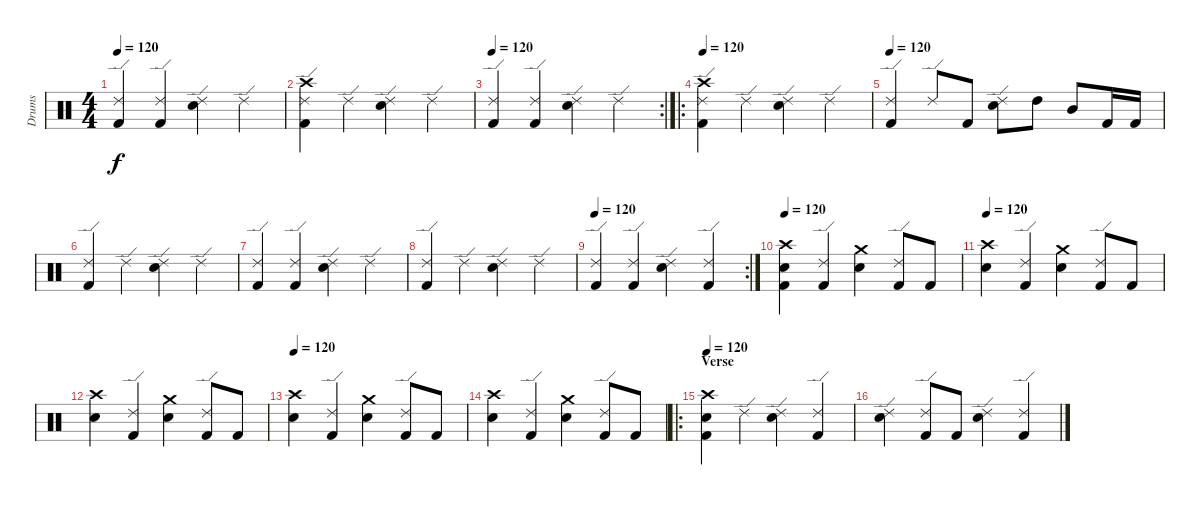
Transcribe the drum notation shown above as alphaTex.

\track ("Drums" "Drums") {instrument percussion}
\staff {score}
\articulation defaults
\ts (4 4)
\tempo 120
\clef neutral
\ks c
("Kick (hit) 2" "Ride (edge) 2").4{dy f} ("Kick (hit) 2" "Ride (edge) 2").4 ("Snare (hit) 2" "Ride (edge) 2").4 "Ride (edge) 2".4 |
("Kick (hit) 2" "Ride (edge) 2" "Crash high (hit)").4 "Ride (edge) 2".4 ("Snare (hit) 2" "Ride (edge) 2").4 "Ride (edge) 2".4 |
\rc 2
\tempo 120
("Kick (hit) 2" "Ride (edge) 2").4 ("Kick (hit) 2" "Ride (edge) 2").4 ("Snare (hit) 2" "Ride (edge) 2").4 "Ride (edge) 2".4 |
\ro
\tempo 120
("Kick (hit) 2" "Ride (edge) 2" "Crash high (hit)").4 "Ride (edge) 2".4 ("Snare (hit) 2" "Ride (edge) 2").4 "Ride (edge) 2".4 |
\tempo 120
("Kick (hit) 2" "Ride (edge) 2").4 "Ride (edge) 2".8 "Kick (hit) 2".8 ("Snare (hit) 2" "Ride (edge) 2").8 "High Tom (hit)".8 "Mid Tom (hit)".8 "Kick (hit) 2".16 "Kick (hit) 2".16 |
("Kick (hit) 2" "Ride (edge) 2").4 "Ride (edge) 2".4 ("Snare (hit) 2" "Ride (edge) 2").4 "Ride (edge) 2".4 |
("Kick (hit) 2" "Ride (edge) 2").4 ("Kick (hit) 2" "Ride (edge) 2").4 ("Snare (hit) 2" "Ride (edge) 2").4 "Ride (edge) 2".4 |
("Kick (hit) 2" "Ride (edge) 2").4 "Ride (edge) 2".4 ("Snare (hit) 2" "Ride (edge) 2").4 "Ride (edge) 2".4 |
\rc 2
\tempo 120
("Kick (hit) 2" "Ride (edge) 2").4 ("Kick (hit) 2" "Ride (edge) 2").4 ("Snare (hit) 2" "Ride (edge) 2").4 ("Kick (hit) 2" "Ride (edge) 2").4 |
\tempo 120
("Kick (hit) 2" "Snare (hit) 2" "Crash high (hit)").4 ("Kick (hit) 2" "Ride (edge) 2").4 ("Snare (hit) 2" "Crash medium (hit)").4 ("Kick (hit) 2" "Ride (edge) 2").8 "Kick (hit) 2".8 |
\tempo 120
("Snare (hit) 2" "Crash high (hit)").4 ("Kick (hit) 2" "Ride (edge) 2").4 ("Snare (hit) 2" "Crash medium (hit)").4 ("Kick (hit) 2" "Ride (edge) 2").8 "Kick (hit) 2".8 |
("Snare (hit) 2" "Crash high (hit)").4 ("Kick (hit) 2" "Ride (edge) 2").4 ("Snare (hit) 2" "Crash medium (hit)").4 ("Kick (hit) 2" "Ride (edge) 2").8 "Kick (hit) 2".8 |
\tempo 120
("Snare (hit) 2" "Crash high (hit)").4 ("Kick (hit) 2" "Ride (edge) 2").4 ("Snare (hit) 2" "Crash medium (hit)").4 ("Kick (hit) 2" "Ride (edge) 2").8 "Kick (hit) 2".8 |
("Snare (hit) 2" "Crash high (hit)").4 ("Kick (hit) 2" "Ride (edge) 2").4 ("Snare (hit) 2" "Crash medium (hit)").4 ("Kick (hit) 2" "Ride (edge) 2").8 "Kick (hit) 2".8 |
\ro
\section ("" "Verse")
\tempo 120
("Kick (hit) 2" "Snare (hit) 2" "Crash high (hit)").4 "Ride (edge) 2".4 ("Snare (hit) 2" "Ride (edge) 2").4 ("Kick (hit) 2" "Ride (edge) 2").4 |
("Snare (hit) 2" "Ride (edge) 2").4 ("Kick (hit) 2" "Ride (edge) 2").8 "Kick (hit) 2".8 ("Snare (hit) 2" "Ride (edge) 2").4 ("Kick (hit) 2" "Ride (edge) 2").4
